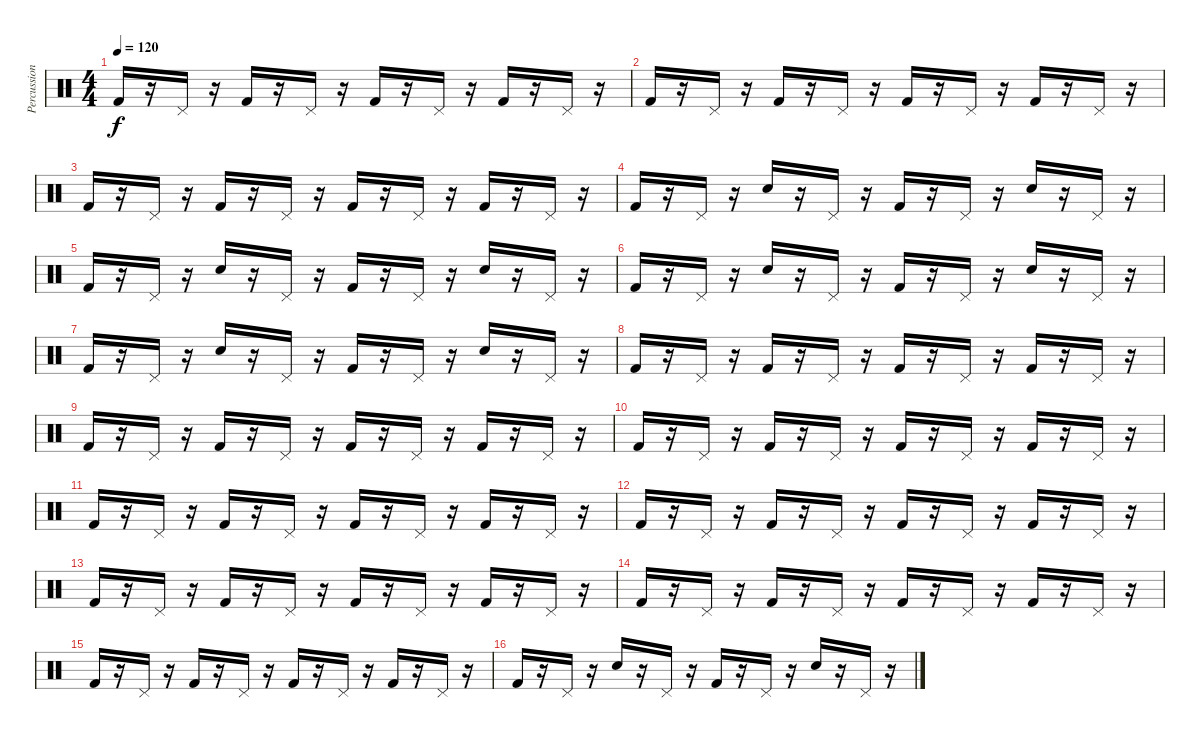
\track ("Percussion" "Percussion") {instrument percussion}
\staff {score}
\articulation defaults
\ts (4 4)
\tempo 120
\clef neutral
\ks c "Kick (hit) 2".16{dy f}
r.16 "Pedal Hi-Hat (hit)".16 r.16 "Kick (hit) 2".16 r.16 "Pedal Hi-Hat (hit)".16 r.16 "Kick (hit) 2".16 r.16 "Pedal Hi-Hat (hit)".16 r.16 "Kick (hit) 2".16 r.16 "Pedal Hi-Hat (hit)".16 r.16 |
"Kick (hit) 2".16 r.16 "Pedal Hi-Hat (hit)".16 r.16 "Kick (hit) 2".16 r.16 "Pedal Hi-Hat (hit)".16 r.16 "Kick (hit) 2".16 r.16 "Pedal Hi-Hat (hit)".16 r.16 "Kick (hit) 2".16 r.16 "Pedal Hi-Hat (hit)".16 r.16 |
"Kick (hit) 2".16 r.16 "Pedal Hi-Hat (hit)".16 r.16 "Kick (hit) 2".16 r.16 "Pedal Hi-Hat (hit)".16 r.16 "Kick (hit) 2".16 r.16 "Pedal Hi-Hat (hit)".16 r.16 "Kick (hit) 2".16 r.16 "Pedal Hi-Hat (hit)".16 r.16 |
"Kick (hit) 2".16 r.16 "Pedal Hi-Hat (hit)".16 r.16 "Electric Snare (hit)".16 r.16 "Pedal Hi-Hat (hit)".16 r.16 "Kick (hit) 2".16 r.16 "Pedal Hi-Hat (hit)".16 r.16 "Electric Snare (hit)".16 r.16 "Pedal Hi-Hat (hit)".16 r.16 |
"Kick (hit) 2".16 r.16 "Pedal Hi-Hat (hit)".16 r.16 "Electric Snare (hit)".16 r.16 "Pedal Hi-Hat (hit)".16 r.16 "Kick (hit) 2".16 r.16 "Pedal Hi-Hat (hit)".16 r.16 "Electric Snare (hit)".16 r.16 "Pedal Hi-Hat (hit)".16 r.16 |
"Kick (hit) 2".16 r.16 "Pedal Hi-Hat (hit)".16 r.16 "Electric Snare (hit)".16 r.16 "Pedal Hi-Hat (hit)".16 r.16 "Kick (hit) 2".16 r.16 "Pedal Hi-Hat (hit)".16 r.16 "Electric Snare (hit)".16 r.16 "Pedal Hi-Hat (hit)".16 r.16 |
"Kick (hit) 2".16 r.16 "Pedal Hi-Hat (hit)".16 r.16 "Electric Snare (hit)".16 r.16 "Pedal Hi-Hat (hit)".16 r.16 "Kick (hit) 2".16 r.16 "Pedal Hi-Hat (hit)".16 r.16 "Electric Snare (hit)".16 r.16 "Pedal Hi-Hat (hit)".16 r.16 |
"Kick (hit) 2".16 r.16 "Pedal Hi-Hat (hit)".16 r.16 "Kick (hit) 2".16 r.16 "Pedal Hi-Hat (hit)".16 r.16 "Kick (hit) 2".16 r.16 "Pedal Hi-Hat (hit)".16 r.16 "Kick (hit) 2".16 r.16 "Pedal Hi-Hat (hit)".16 r.16 |
"Kick (hit) 2".16 r.16 "Pedal Hi-Hat (hit)".16 r.16 "Kick (hit) 2".16 r.16 "Pedal Hi-Hat (hit)".16 r.16 "Kick (hit) 2".16 r.16 "Pedal Hi-Hat (hit)".16 r.16 "Kick (hit) 2".16 r.16 "Pedal Hi-Hat (hit)".16 r.16 |
"Kick (hit) 2".16 r.16 "Pedal Hi-Hat (hit)".16 r.16 "Kick (hit) 2".16 r.16 "Pedal Hi-Hat (hit)".16 r.16 "Kick (hit) 2".16 r.16 "Pedal Hi-Hat (hit)".16 r.16 "Kick (hit) 2".16 r.16 "Pedal Hi-Hat (hit)".16 r.16 |
"Kick (hit) 2".16 r.16 "Pedal Hi-Hat (hit)".16 r.16 "Kick (hit) 2".16 r.16 "Pedal Hi-Hat (hit)".16 r.16 "Kick (hit) 2".16 r.16 "Pedal Hi-Hat (hit)".16 r.16 "Kick (hit) 2".16 r.16 "Pedal Hi-Hat (hit)".16 r.16 |
"Kick (hit) 2".16 r.16 "Pedal Hi-Hat (hit)".16 r.16 "Kick (hit) 2".16 r.16 "Pedal Hi-Hat (hit)".16 r.16 "Kick (hit) 2".16 r.16 "Pedal Hi-Hat (hit)".16 r.16 "Kick (hit) 2".16 r.16 "Pedal Hi-Hat (hit)".16 r.16 |
"Kick (hit) 2".16 r.16 "Pedal Hi-Hat (hit)".16 r.16 "Kick (hit) 2".16 r.16 "Pedal Hi-Hat (hit)".16 r.16 "Kick (hit) 2".16 r.16 "Pedal Hi-Hat (hit)".16 r.16 "Kick (hit) 2".16 r.16 "Pedal Hi-Hat (hit)".16 r.16 |
"Kick (hit) 2".16 r.16 "Pedal Hi-Hat (hit)".16 r.16 "Kick (hit) 2".16 r.16 "Pedal Hi-Hat (hit)".16 r.16 "Kick (hit) 2".16 r.16 "Pedal Hi-Hat (hit)".16 r.16 "Kick (hit) 2".16 r.16 "Pedal Hi-Hat (hit)".16 r.16 |
"Kick (hit) 2".16 r.16 "Pedal Hi-Hat (hit)".16 r.16 "Kick (hit) 2".16 r.16 "Pedal Hi-Hat (hit)".16 r.16 "Kick (hit) 2".16 r.16 "Pedal Hi-Hat (hit)".16 r.16 "Kick (hit) 2".16 r.16 "Pedal Hi-Hat (hit)".16 r.16 |
"Kick (hit) 2".16 r.16 "Pedal Hi-Hat (hit)".16 r.16 "Electric Snare (hit)".16 r.16 "Pedal Hi-Hat (hit)".16 r.16 "Kick (hit) 2".16 r.16 "Pedal Hi-Hat (hit)".16 r.16 "Electric Snare (hit)".16 r.16 "Pedal Hi-Hat (hit)".16 r.16
